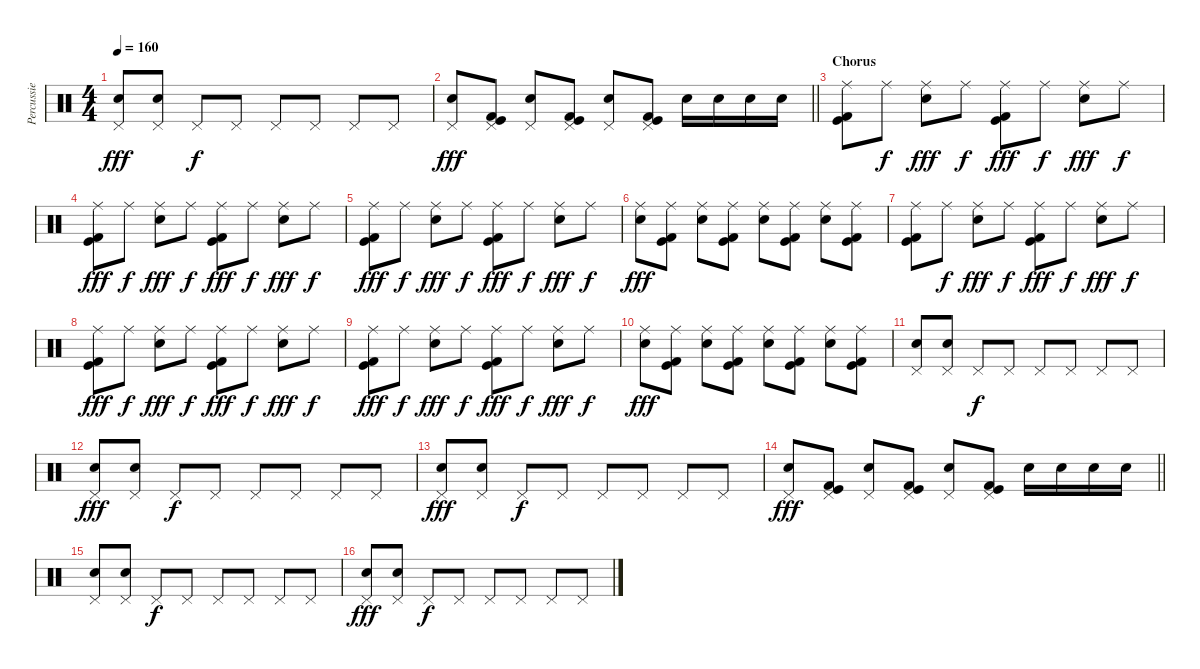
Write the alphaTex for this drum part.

\track ("Percussie" "Percussie") {instrument percussion}
\staff {score}
\articulation defaults
\ts (4 4)
\tempo 160
\clef neutral
\ks c
("Pedal Hi-Hat (hit)" "Snare (hit) 2").8{dy fff} ("Pedal Hi-Hat (hit)" "Snare (hit) 2").8 "Pedal Hi-Hat (hit)".8{dy f} "Pedal Hi-Hat (hit)".8 "Pedal Hi-Hat (hit)".8 "Pedal Hi-Hat (hit)".8 "Pedal Hi-Hat (hit)".8 "Pedal Hi-Hat (hit)".8 |
\barLineRight lightlight
("Pedal Hi-Hat (hit)" "Snare (hit) 2").8{dy fff} ("Pedal Hi-Hat (hit)" "Kick (hit)" "Kick (hit) 2").8 ("Pedal Hi-Hat (hit)" "Snare (hit) 2").8 ("Pedal Hi-Hat (hit)" "Kick (hit)" "Kick (hit) 2").8 ("Pedal Hi-Hat (hit)" "Snare (hit) 2").8 ("Pedal Hi-Hat (hit)" "Kick (hit)" "Kick (hit) 2").8 "Snare (hit) 2".16 "Snare (hit) 2".16 "Snare (hit) 2".16 "Snare (hit) 2".16 |
\section ("" "Chorus")
("Ride (middle)" "Kick (hit)" "Kick (hit) 2").8 "Ride (middle)".8{dy f} ("Ride (middle)" "Snare (hit) 2").8{dy fff} "Ride (middle)".8{dy f} ("Ride (middle)" "Kick (hit)" "Kick (hit) 2").8{dy fff} "Ride (middle)".8{dy f} ("Ride (middle)" "Snare (hit) 2").8{dy fff} "Ride (middle)".8{dy f} |
("Ride (middle)" "Kick (hit)" "Kick (hit) 2").8{dy fff} "Ride (middle)".8{dy f} ("Ride (middle)" "Snare (hit) 2").8{dy fff} "Ride (middle)".8{dy f} ("Ride (middle)" "Kick (hit)" "Kick (hit) 2").8{dy fff} "Ride (middle)".8{dy f} ("Ride (middle)" "Snare (hit) 2").8{dy fff} "Ride (middle)".8{dy f} |
("Ride (middle)" "Kick (hit)" "Kick (hit) 2").8{dy fff} "Ride (middle)".8{dy f} ("Ride (middle)" "Snare (hit) 2").8{dy fff} "Ride (middle)".8{dy f} ("Ride (middle)" "Kick (hit)" "Kick (hit) 2").8{dy fff} "Ride (middle)".8{dy f} ("Ride (middle)" "Snare (hit) 2").8{dy fff} "Ride (middle)".8{dy f} |
("Ride (middle)" "Snare (hit) 2").8{dy fff} ("Ride (middle)" "Kick (hit)" "Kick (hit) 2").8 ("Ride (middle)" "Snare (hit) 2").8 ("Ride (middle)" "Kick (hit)" "Kick (hit) 2").8 ("Ride (middle)" "Snare (hit) 2").8 ("Ride (middle)" "Kick (hit)" "Kick (hit) 2").8 ("Ride (middle)" "Snare (hit) 2").8 ("Ride (middle)" "Kick (hit)" "Kick (hit) 2").8 |
("Ride (middle)" "Kick (hit)" "Kick (hit) 2").8 "Ride (middle)".8{dy f} ("Ride (middle)" "Snare (hit) 2").8{dy fff} "Ride (middle)".8{dy f} ("Ride (middle)" "Kick (hit)" "Kick (hit) 2").8{dy fff} "Ride (middle)".8{dy f} ("Ride (middle)" "Snare (hit) 2").8{dy fff} "Ride (middle)".8{dy f} |
("Ride (middle)" "Kick (hit)" "Kick (hit) 2").8{dy fff} "Ride (middle)".8{dy f} ("Ride (middle)" "Snare (hit) 2").8{dy fff} "Ride (middle)".8{dy f} ("Ride (middle)" "Kick (hit)" "Kick (hit) 2").8{dy fff} "Ride (middle)".8{dy f} ("Ride (middle)" "Snare (hit) 2").8{dy fff} "Ride (middle)".8{dy f} |
("Ride (middle)" "Kick (hit)" "Kick (hit) 2").8{dy fff} "Ride (middle)".8{dy f} ("Ride (middle)" "Snare (hit) 2").8{dy fff} "Ride (middle)".8{dy f} ("Ride (middle)" "Kick (hit)" "Kick (hit) 2").8{dy fff} "Ride (middle)".8{dy f} ("Ride (middle)" "Snare (hit) 2").8{dy fff} "Ride (middle)".8{dy f} |
("Ride (middle)" "Snare (hit) 2").8{dy fff} ("Ride (middle)" "Kick (hit)" "Kick (hit) 2").8 ("Ride (middle)" "Snare (hit) 2").8 ("Ride (middle)" "Kick (hit)" "Kick (hit) 2").8 ("Ride (middle)" "Snare (hit) 2").8 ("Ride (middle)" "Kick (hit)" "Kick (hit) 2").8 ("Ride (middle)" "Snare (hit) 2").8 ("Ride (middle)" "Kick (hit)" "Kick (hit) 2").8 |
("Pedal Hi-Hat (hit)" "Snare (hit) 2").8 ("Pedal Hi-Hat (hit)" "Snare (hit) 2").8 "Pedal Hi-Hat (hit)".8{dy f} "Pedal Hi-Hat (hit)".8 "Pedal Hi-Hat (hit)".8 "Pedal Hi-Hat (hit)".8 "Pedal Hi-Hat (hit)".8 "Pedal Hi-Hat (hit)".8 |
("Pedal Hi-Hat (hit)" "Snare (hit) 2").8{dy fff} ("Pedal Hi-Hat (hit)" "Snare (hit) 2").8 "Pedal Hi-Hat (hit)".8{dy f} "Pedal Hi-Hat (hit)".8 "Pedal Hi-Hat (hit)".8 "Pedal Hi-Hat (hit)".8 "Pedal Hi-Hat (hit)".8 "Pedal Hi-Hat (hit)".8 |
("Pedal Hi-Hat (hit)" "Snare (hit) 2").8{dy fff} ("Pedal Hi-Hat (hit)" "Snare (hit) 2").8 "Pedal Hi-Hat (hit)".8{dy f} "Pedal Hi-Hat (hit)".8 "Pedal Hi-Hat (hit)".8 "Pedal Hi-Hat (hit)".8 "Pedal Hi-Hat (hit)".8 "Pedal Hi-Hat (hit)".8 |
\barLineRight lightlight
("Pedal Hi-Hat (hit)" "Snare (hit) 2").8{dy fff} ("Pedal Hi-Hat (hit)" "Kick (hit)" "Kick (hit) 2").8 ("Pedal Hi-Hat (hit)" "Snare (hit) 2").8 ("Pedal Hi-Hat (hit)" "Kick (hit)" "Kick (hit) 2").8 ("Pedal Hi-Hat (hit)" "Snare (hit) 2").8 ("Pedal Hi-Hat (hit)" "Kick (hit)" "Kick (hit) 2").8 "Snare (hit) 2".16 "Snare (hit) 2".16 "Snare (hit) 2".16 "Snare (hit) 2".16 |
("Pedal Hi-Hat (hit)" "Snare (hit) 2").8 ("Pedal Hi-Hat (hit)" "Snare (hit) 2").8 "Pedal Hi-Hat (hit)".8{dy f} "Pedal Hi-Hat (hit)".8 "Pedal Hi-Hat (hit)".8 "Pedal Hi-Hat (hit)".8 "Pedal Hi-Hat (hit)".8 "Pedal Hi-Hat (hit)".8 |
("Pedal Hi-Hat (hit)" "Snare (hit) 2").8{dy fff} ("Pedal Hi-Hat (hit)" "Snare (hit) 2").8 "Pedal Hi-Hat (hit)".8{dy f} "Pedal Hi-Hat (hit)".8 "Pedal Hi-Hat (hit)".8 "Pedal Hi-Hat (hit)".8 "Pedal Hi-Hat (hit)".8 "Pedal Hi-Hat (hit)".8
